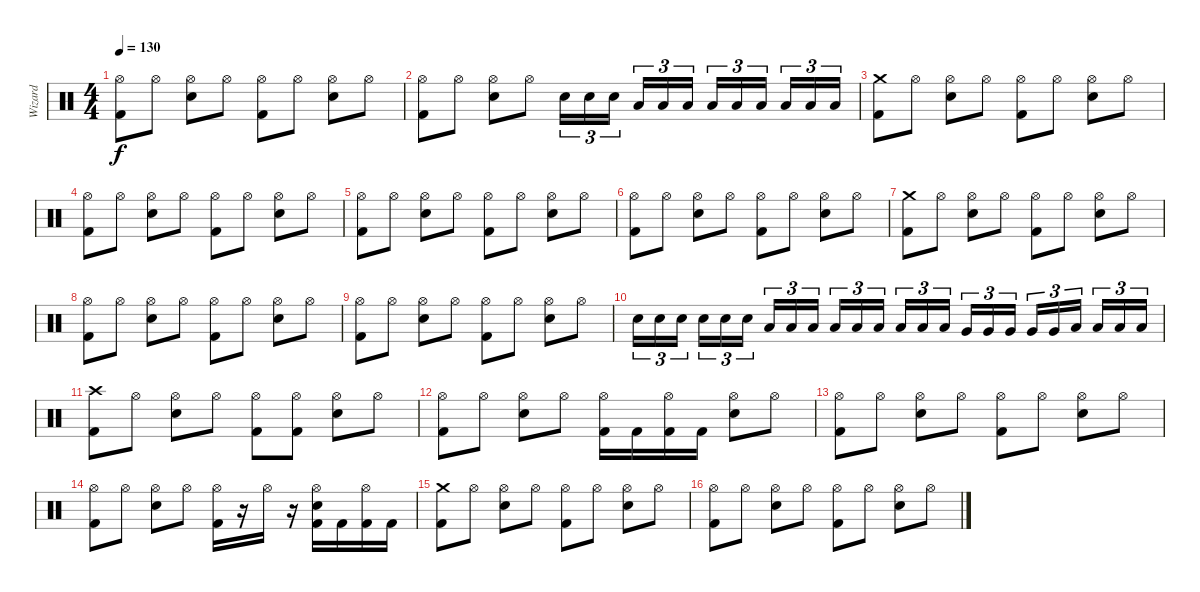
\track ("Wizard" "Wizard") {instrument percussion}
\staff {score}
\articulation defaults
\ts (4 4)
\tempo 130
\clef neutral
\ks c
("Hi-Hat (open)" "Kick (hit) 2").8{dy f} "Hi-Hat (open)".8 ("Hi-Hat (open)" "Snare (hit) 2").8 "Hi-Hat (open)".8 ("Hi-Hat (open)" "Kick (hit) 2").8 "Hi-Hat (open)".8 ("Hi-Hat (open)" "Snare (hit) 2").8 "Hi-Hat (open)".8 |
("Hi-Hat (open)" "Kick (hit) 2").8 "Hi-Hat (open)".8 ("Hi-Hat (open)" "Snare (hit) 2").8 "Hi-Hat (open)".8 "Snare (hit) 2".16{tu (3 2)} "Snare (hit) 2".16{tu (3 2)} "Snare (hit) 2".16{tu (3 2) beam splitsecondary} "Low Tom (hit)".16{tu (3 2)} "Low Tom (hit)".16{tu (3 2)} "Low Tom (hit)".16{tu (3 2)} "Low Tom (hit)".16{tu (3 2)} "Low Tom (hit)".16{tu (3 2)} "Low Tom (hit)".16{tu (3 2) beam splitsecondary} "Low Tom (hit)".16{tu (3 2)} "Low Tom (hit)".16{tu (3 2)} "Low Tom (hit)".16{tu (3 2)} |
("Crash medium (hit)" "Kick (hit) 2").8 "Hi-Hat (open)".8 ("Hi-Hat (open)" "Snare (hit) 2").8 "Hi-Hat (open)".8 ("Hi-Hat (open)" "Kick (hit) 2").8 "Hi-Hat (open)".8 ("Hi-Hat (open)" "Snare (hit) 2").8 "Hi-Hat (open)".8 |
("Hi-Hat (open)" "Kick (hit) 2").8 "Hi-Hat (open)".8 ("Hi-Hat (open)" "Snare (hit) 2").8 "Hi-Hat (open)".8 ("Hi-Hat (open)" "Kick (hit) 2").8 "Hi-Hat (open)".8 ("Hi-Hat (open)" "Snare (hit) 2").8 "Hi-Hat (open)".8 |
("Hi-Hat (open)" "Kick (hit) 2").8 "Hi-Hat (open)".8 ("Hi-Hat (open)" "Snare (hit) 2").8 "Hi-Hat (open)".8 ("Hi-Hat (open)" "Kick (hit) 2").8 "Hi-Hat (open)".8 ("Hi-Hat (open)" "Snare (hit) 2").8 "Hi-Hat (open)".8 |
("Hi-Hat (open)" "Kick (hit) 2").8 "Hi-Hat (open)".8 ("Hi-Hat (open)" "Snare (hit) 2").8 "Hi-Hat (open)".8 ("Hi-Hat (open)" "Kick (hit) 2").8 "Hi-Hat (open)".8 ("Hi-Hat (open)" "Snare (hit) 2").8 "Hi-Hat (open)".8 |
("Crash medium (hit)" "Kick (hit) 2").8 "Hi-Hat (open)".8 ("Hi-Hat (open)" "Snare (hit) 2").8 "Hi-Hat (open)".8 ("Hi-Hat (open)" "Kick (hit) 2").8 "Hi-Hat (open)".8 ("Hi-Hat (open)" "Snare (hit) 2").8 "Hi-Hat (open)".8 |
("Hi-Hat (open)" "Kick (hit) 2").8 "Hi-Hat (open)".8 ("Hi-Hat (open)" "Snare (hit) 2").8 "Hi-Hat (open)".8 ("Hi-Hat (open)" "Kick (hit) 2").8 "Hi-Hat (open)".8 ("Hi-Hat (open)" "Snare (hit) 2").8 "Hi-Hat (open)".8 |
("Hi-Hat (open)" "Kick (hit) 2").8 "Hi-Hat (open)".8 ("Hi-Hat (open)" "Snare (hit) 2").8 "Hi-Hat (open)".8 ("Hi-Hat (open)" "Kick (hit) 2").8 "Hi-Hat (open)".8 ("Hi-Hat (open)" "Snare (hit) 2").8 "Hi-Hat (open)".8 |
"Snare (hit) 2".16{tu (3 2)} "Snare (hit) 2".16{tu (3 2)} "Snare (hit) 2".16{tu (3 2) beam splitsecondary} "Snare (hit) 2".16{tu (3 2)} "Snare (hit) 2".16{tu (3 2)} "Snare (hit) 2".16{tu (3 2)} "Low Tom (hit)".16{tu (3 2)} "Low Tom (hit)".16{tu (3 2)} "Low Tom (hit)".16{tu (3 2) beam splitsecondary} "Low Tom (hit)".16{tu (3 2)} "Low Tom (hit)".16{tu (3 2)} "Low Tom (hit)".16{tu (3 2)} "Low Tom (hit)".16{tu (3 2)} "Low Tom (hit)".16{tu (3 2)} "Low Tom (hit)".16{tu (3 2) beam splitsecondary} "Very Low Tom (hit)".16{tu (3 2)} "Very Low Tom (hit)".16{tu (3 2)} "Very Low Tom (hit)".16{tu (3 2)} "Very Low Tom (hit)".16{tu (3 2)} "Very Low Tom (hit)".16{tu (3 2)} "Low Floor Tom (hit)".16{tu (3 2) beam splitsecondary} "Low Floor Tom (hit)".16{tu (3 2)} "Low Floor Tom (hit)".16{tu (3 2)} "Low Floor Tom (hit)".16{tu (3 2)} |
("Crash high (hit)" "Kick (hit) 2").8 "Hi-Hat (open)".8 ("Hi-Hat (open)" "Snare (hit) 2").8 "Hi-Hat (open)".8 ("Hi-Hat (open)" "Kick (hit) 2").8 ("Hi-Hat (open)" "Kick (hit) 2").8 ("Hi-Hat (open)" "Snare (hit) 2").8 "Hi-Hat (open)".8 |
("Hi-Hat (open)" "Kick (hit) 2").8 "Hi-Hat (open)".8 ("Hi-Hat (open)" "Snare (hit) 2").8 "Hi-Hat (open)".8 ("Hi-Hat (open)" "Kick (hit) 2").16 "Kick (hit) 2".16 ("Hi-Hat (open)" "Kick (hit) 2").16 "Kick (hit) 2".16 ("Hi-Hat (open)" "Snare (hit) 2").8 "Hi-Hat (open)".8 |
("Hi-Hat (open)" "Kick (hit) 2").8 "Hi-Hat (open)".8 ("Hi-Hat (open)" "Snare (hit) 2").8 "Hi-Hat (open)".8 ("Hi-Hat (open)" "Kick (hit) 2").8 "Hi-Hat (open)".8 ("Hi-Hat (open)" "Snare (hit) 2").8 "Hi-Hat (open)".8 |
("Hi-Hat (open)" "Kick (hit) 2").8 "Hi-Hat (open)".8 ("Hi-Hat (open)" "Snare (hit) 2").8 "Hi-Hat (open)".8 ("Hi-Hat (open)" "Kick (hit) 2").16 r.16 "Hi-Hat (open)".16 r.16 ("Hi-Hat (open)" "Snare (hit) 2" "Kick (hit) 2").16 "Kick (hit) 2".16 ("Hi-Hat (open)" "Kick (hit) 2").16 "Kick (hit) 2".16 |
("Crash medium (hit)" "Kick (hit) 2").8 "Hi-Hat (open)".8 ("Hi-Hat (open)" "Snare (hit) 2").8 "Hi-Hat (open)".8 ("Hi-Hat (open)" "Kick (hit) 2").8 "Hi-Hat (open)".8 ("Hi-Hat (open)" "Snare (hit) 2").8 "Hi-Hat (open)".8 |
("Hi-Hat (open)" "Kick (hit) 2").8 "Hi-Hat (open)".8 ("Hi-Hat (open)" "Snare (hit) 2").8 "Hi-Hat (open)".8 ("Hi-Hat (open)" "Kick (hit) 2").8 "Hi-Hat (open)".8 ("Hi-Hat (open)" "Snare (hit) 2").8 "Hi-Hat (open)".8
